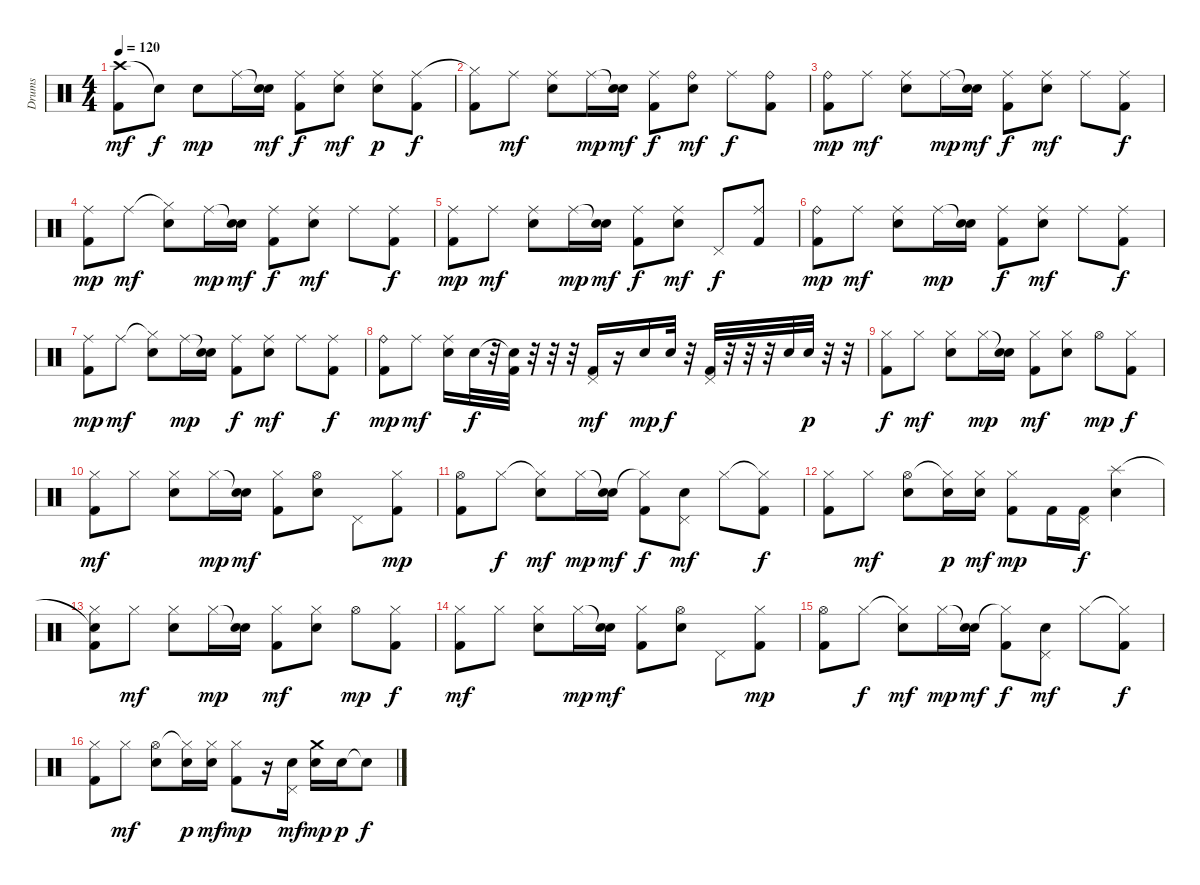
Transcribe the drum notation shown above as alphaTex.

\track ("Drums" "Drums") {instrument percussion}
\staff {score}
\articulation defaults
\ts (4 4)
\tempo 120
\clef neutral
\ks c
("Crash high (hit)" "Kick (hit) 2").8{dy mf} "Snare (hit)"{t}.8{dy f} "Snare (hit) 2".8{dy mp} "Ride (middle)".16 ("Snare (hit)"{t} "Snare (hit) 2").16{dy mf} ("Ride (middle)" "Kick (hit) 2").8{dy f} ("Ride (middle)" "Snare (hit) 2").8{dy mf} ("Ride (middle)" "Snare (hit) 2").8{dy p} ("Ride (middle)" "Kick (hit) 2").8{dy f} |
("Hi-Hat (closed)"{t} "Kick (hit) 2").8 "Ride (middle)".8{dy mf} ("Ride (middle)" "Snare (hit) 2").8 "Ride (middle)".16{dy mp} ("Snare (hit)"{t} "Snare (hit) 2").16{dy mf} ("Ride (middle)" "Kick (hit) 2").8{dy f} ("Ride (bell)" "Snare (hit) 2").8{dy mf} "Ride (middle)".8{dy f} ("Ride (bell)" "Kick (hit) 2").8 |
("Ride (bell)" "Kick (hit) 2").8{dy mp} "Ride (middle)".8{dy mf} ("Ride (middle)" "Snare (hit) 2").8 "Ride (middle)".16{dy mp} ("Snare (hit)"{t} "Snare (hit) 2").16{dy mf} ("Ride (middle)" "Kick (hit) 2").8{dy f} ("Ride (middle)" "Snare (hit) 2").8{dy mf} "Ride (middle)".8 ("Ride (middle)" "Kick (hit) 2").8{dy f} |
("Ride (middle)" "Kick (hit) 2").8{dy mp} "Ride (middle)".8{dy mf} ("Hi-Hat (closed)"{t} "Snare (hit) 2").8 "Ride (middle)".16{dy mp} ("Snare (hit)"{t} "Snare (hit) 2").16{dy mf} ("Ride (middle)" "Kick (hit) 2").8{dy f} ("Ride (middle)" "Snare (hit) 2").8{dy mf} "Ride (middle)".8 ("Ride (middle)" "Kick (hit) 2").8{dy f} |
("Ride (middle)" "Kick (hit) 2").8{dy mp} "Ride (middle)".8{dy mf} ("Ride (middle)" "Snare (hit) 2").8 "Ride (middle)".16{dy mp} ("Snare (hit)"{t} "Snare (hit) 2").16{dy mf} ("Ride (middle)" "Kick (hit) 2").8{dy f} ("Ride (middle)" "Snare (hit) 2").8{dy mf} "Pedal Hi-Hat (hit)".8{dy f} ("Ride (middle)" "Kick (hit) 2").8 |
("Ride (bell)" "Kick (hit) 2").8{dy mp} "Ride (middle)".8{dy mf} ("Ride (middle)" "Snare (hit) 2").8 "Ride (middle)".16{dy mp} ("Snare (hit)"{t} "Snare (hit) 2").16 ("Ride (middle)" "Kick (hit) 2").8{dy f} ("Ride (middle)" "Snare (hit) 2").8{dy mf} "Ride (middle)".8 ("Ride (middle)" "Kick (hit) 2").8{dy f} |
("Ride (middle)" "Kick (hit) 2").8{dy mp} "Ride (middle)".8{dy mf} ("Hi-Hat (closed)"{t} "Snare (hit) 2").8 "Ride (middle)".16{dy mp} ("Snare (hit)"{t} "Snare (hit) 2").16 ("Ride (middle)" "Kick (hit) 2").8{dy f} ("Ride (middle)" "Snare (hit) 2").8{dy mf} "Ride (middle)".8 ("Ride (middle)" "Kick (hit) 2").8{dy f} |
("Ride (bell)" "Kick (hit) 2").8{dy mp} "Ride (middle)".8{dy mf} ("Ride (middle)" "Snare (hit) 2").16 "Snare (hit) 2".32{dy f} r.32 ("Snare (hit)"{t} "Kick (hit) 2").32 r.32 r.32 r.32 ("Pedal Hi-Hat (hit)" "Kick (hit) 2").16{dy mf} r.16 "Snare (hit) 2".16{dy mp} "Snare (hit) 2".32{dy f} r.32 ("Pedal Hi-Hat (hit)" "Kick (hit) 2").32 r.32 r.32 r.32 "Snare (hit) 2".32 "Snare (hit) 2".32{dy p} r.32 r.32 |
("Hi-Hat (closed)" "Kick (hit) 2").8{dy f} "Hi-Hat (closed)".8{dy mf} ("Hi-Hat (closed)" "Snare (hit) 2").8 "Hi-Hat (closed)".16{dy mp} ("Snare (hit)"{t} "Snare (hit) 2").16 ("Hi-Hat (closed)" "Kick (hit) 2").8{dy mf} ("Hi-Hat (closed)" "Snare (hit) 2").8 "Hi-Hat (open)".8{dy mp} ("Hi-Hat (closed)" "Kick (hit) 2").8{dy f} |
("Hi-Hat (closed)" "Kick (hit) 2").8{dy mf} "Hi-Hat (closed)".8 ("Hi-Hat (closed)" "Snare (hit) 2").8 "Hi-Hat (closed)".16{dy mp} ("Snare (hit)"{t} "Snare (hit) 2").16{dy mf} ("Hi-Hat (closed)" "Kick (hit) 2").8 ("Hi-Hat (open)" "Snare (hit) 2").8 "Pedal Hi-Hat (hit)".8 ("Hi-Hat (closed)" "Kick (hit) 2").8{dy mp} |
("Hi-Hat (open)" "Kick (hit) 2").8 "Hi-Hat (closed)".8{dy f} ("Hi-Hat (closed)"{t} "Snare (hit) 2").8{dy mf} "Hi-Hat (closed)".16{dy mp} ("Snare (hit)"{t} "Snare (hit) 2").16{dy mf} ("Hi-Hat (closed)"{t} "Kick (hit) 2").8{dy f} ("Pedal Hi-Hat (hit)" "Snare (hit) 2").8{dy mf} "Hi-Hat (closed)".8 ("Hi-Hat (closed)"{t} "Kick (hit) 2").8{dy f} |
("Hi-Hat (closed)" "Kick (hit) 2").8 "Hi-Hat (closed)".8{dy mf} ("Hi-Hat (open)" "Snare (hit) 2").8 ("Hi-Hat (closed)"{t} "Snare (hit) 2").16{dy p} ("Hi-Hat (closed)" "Snare (hit) 2").16{dy mf} ("Hi-Hat (closed)" "Kick (hit) 2").8{dy mp} "Kick (hit) 2".16 ("Pedal Hi-Hat (hit)" "Kick (hit) 2").16{dy f} ("Splash (hit)" "Snare (hit) 2").4 |
("Snare (hit)"{t} "Hi-Hat (closed)" "Kick (hit) 2").8 "Hi-Hat (closed)".8{dy mf} ("Hi-Hat (closed)" "Snare (hit) 2").8 "Hi-Hat (closed)".16{dy mp} ("Snare (hit)"{t} "Snare (hit) 2").16 ("Hi-Hat (closed)" "Kick (hit) 2").8{dy mf} ("Hi-Hat (closed)" "Snare (hit) 2").8 "Hi-Hat (open)".8{dy mp} ("Hi-Hat (closed)" "Kick (hit) 2").8{dy f} |
("Hi-Hat (closed)" "Kick (hit) 2").8{dy mf} "Hi-Hat (closed)".8 ("Hi-Hat (closed)" "Snare (hit) 2").8 "Hi-Hat (closed)".16{dy mp} ("Snare (hit)"{t} "Snare (hit) 2").16{dy mf} ("Hi-Hat (closed)" "Kick (hit) 2").8 ("Hi-Hat (open)" "Snare (hit) 2").8 "Pedal Hi-Hat (hit)".8 ("Hi-Hat (closed)" "Kick (hit) 2").8{dy mp} |
("Hi-Hat (open)" "Kick (hit) 2").8 "Hi-Hat (closed)".8{dy f} ("Hi-Hat (closed)"{t} "Snare (hit) 2").8{dy mf} "Hi-Hat (closed)".16{dy mp} ("Snare (hit)"{t} "Snare (hit) 2").16{dy mf} ("Hi-Hat (closed)"{t} "Kick (hit) 2").8{dy f} ("Pedal Hi-Hat (hit)" "Snare (hit) 2").8{dy mf} "Hi-Hat (closed)".8 ("Hi-Hat (closed)"{t} "Kick (hit) 2").8{dy f} |
("Hi-Hat (closed)" "Kick (hit) 2").8 "Hi-Hat (closed)".8{dy mf} ("Hi-Hat (open)" "Snare (hit) 2").8 ("Hi-Hat (closed)"{t} "Snare (hit) 2").16{dy p} ("Hi-Hat (closed)" "Snare (hit) 2").16{dy mf} ("Hi-Hat (closed)" "Kick (hit) 2").8{dy mp} r.16 ("Pedal Hi-Hat (hit)" "Snare (hit) 2").16{dy mf} ("Crash medium (hit)" "Snare (hit) 2").16{dy mp} "Snare (hit) 2".16{dy p} "Snare (hit)"{t}.8{dy f}
